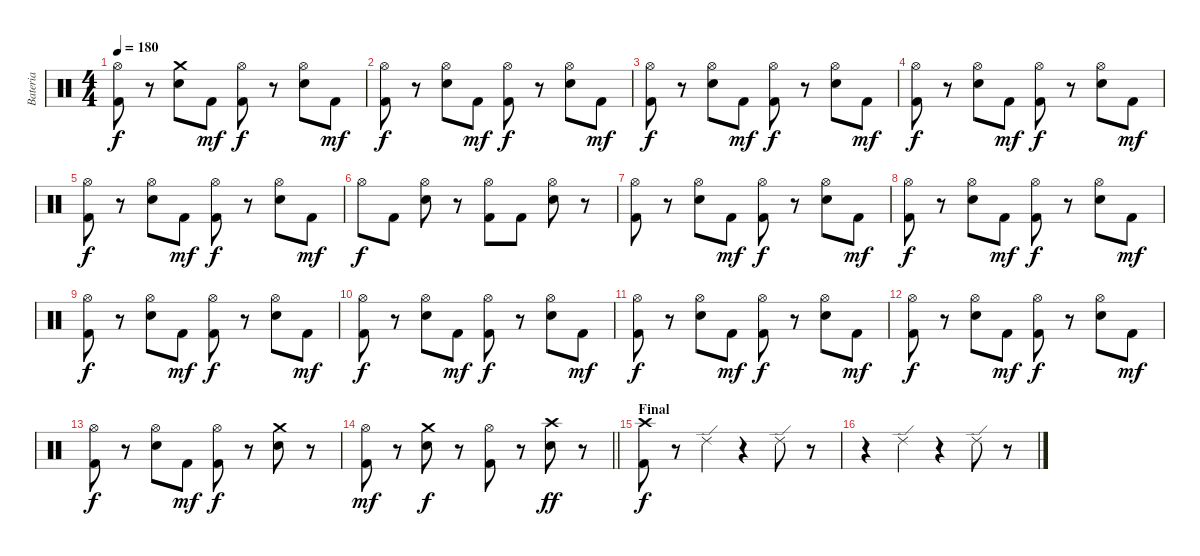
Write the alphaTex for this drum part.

\track ("Bateria" "Bateria") {instrument percussion}
\staff {score}
\articulation defaults
\ts (4 4)
\tempo 180
\clef neutral
\ks c
("Hi-Hat (open)" "Kick (hit) 2").8{dy f} r.8 ("Crash medium (hit)" "Electric Snare (hit)").8 "Kick (hit) 2".8{dy mf} ("Hi-Hat (open)" "Kick (hit) 2").8{dy f} r.8 ("Hi-Hat (open)" "Electric Snare (hit)").8 "Kick (hit) 2".8{dy mf} |
("Hi-Hat (open)" "Kick (hit) 2").8{dy f} r.8 ("Hi-Hat (open)" "Electric Snare (hit)").8 "Kick (hit) 2".8{dy mf} ("Hi-Hat (open)" "Kick (hit) 2").8{dy f} r.8 ("Hi-Hat (open)" "Electric Snare (hit)").8 "Kick (hit) 2".8{dy mf} |
("Hi-Hat (open)" "Kick (hit) 2").8{dy f} r.8 ("Hi-Hat (open)" "Electric Snare (hit)").8 "Kick (hit) 2".8{dy mf} ("Hi-Hat (open)" "Kick (hit) 2").8{dy f} r.8 ("Hi-Hat (open)" "Electric Snare (hit)").8 "Kick (hit) 2".8{dy mf} |
("Hi-Hat (open)" "Kick (hit) 2").8{dy f} r.8 ("Hi-Hat (open)" "Electric Snare (hit)").8 "Kick (hit) 2".8{dy mf} ("Hi-Hat (open)" "Kick (hit) 2").8{dy f} r.8 ("Hi-Hat (open)" "Electric Snare (hit)").8 "Kick (hit) 2".8{dy mf} |
("Hi-Hat (open)" "Kick (hit) 2").8{dy f} r.8 ("Hi-Hat (open)" "Electric Snare (hit)").8 "Kick (hit) 2".8{dy mf} ("Hi-Hat (open)" "Kick (hit) 2").8{dy f} r.8 ("Hi-Hat (open)" "Electric Snare (hit)").8 "Kick (hit) 2".8{dy mf} |
"Hi-Hat (open)".8{dy f} "Kick (hit) 2".8 ("Hi-Hat (open)" "Electric Snare (hit)").8 r.8 ("Hi-Hat (open)" "Kick (hit) 2").8 "Kick (hit) 2".8 ("Hi-Hat (open)" "Electric Snare (hit)").8 r.8 |
("Hi-Hat (open)" "Kick (hit) 2").8 r.8 ("Hi-Hat (open)" "Electric Snare (hit)").8 "Kick (hit) 2".8{dy mf} ("Hi-Hat (open)" "Kick (hit) 2").8{dy f} r.8 ("Hi-Hat (open)" "Electric Snare (hit)").8 "Kick (hit) 2".8{dy mf} |
("Hi-Hat (open)" "Kick (hit) 2").8{dy f} r.8 ("Hi-Hat (open)" "Electric Snare (hit)").8 "Kick (hit) 2".8{dy mf} ("Hi-Hat (open)" "Kick (hit) 2").8{dy f} r.8 ("Hi-Hat (open)" "Electric Snare (hit)").8 "Kick (hit) 2".8{dy mf} |
("Hi-Hat (open)" "Kick (hit) 2").8{dy f} r.8 ("Hi-Hat (open)" "Electric Snare (hit)").8 "Kick (hit) 2".8{dy mf} ("Hi-Hat (open)" "Kick (hit) 2").8{dy f} r.8 ("Hi-Hat (open)" "Electric Snare (hit)").8 "Kick (hit) 2".8{dy mf} |
("Hi-Hat (open)" "Kick (hit) 2").8{dy f} r.8 ("Hi-Hat (open)" "Electric Snare (hit)").8 "Kick (hit) 2".8{dy mf} ("Hi-Hat (open)" "Kick (hit) 2").8{dy f} r.8 ("Hi-Hat (open)" "Electric Snare (hit)").8 "Kick (hit) 2".8{dy mf} |
("Hi-Hat (open)" "Kick (hit) 2").8{dy f} r.8 ("Hi-Hat (open)" "Electric Snare (hit)").8 "Kick (hit) 2".8{dy mf} ("Hi-Hat (open)" "Kick (hit) 2").8{dy f} r.8 ("Hi-Hat (open)" "Electric Snare (hit)").8 "Kick (hit) 2".8{dy mf} |
("Hi-Hat (open)" "Kick (hit) 2").8{dy f} r.8 ("Hi-Hat (open)" "Electric Snare (hit)").8 "Kick (hit) 2".8{dy mf} ("Hi-Hat (open)" "Kick (hit) 2").8{dy f} r.8 ("Hi-Hat (open)" "Electric Snare (hit)").8 "Kick (hit) 2".8{dy mf} |
("Hi-Hat (open)" "Kick (hit) 2").8{dy f} r.8 ("Hi-Hat (open)" "Electric Snare (hit)").8 "Kick (hit) 2".8{dy mf} ("Hi-Hat (open)" "Kick (hit) 2").8{dy f} r.8 ("Crash medium (hit)" "Electric Snare (hit)").8 r.8 |
\barLineRight lightlight
("Hi-Hat (open)" "Kick (hit) 2").8{dy mf} r.8 ("Crash medium (hit)" "Electric Snare (hit)").8{dy f} r.8 ("Hi-Hat (open)" "Kick (hit) 2").8 r.8 ("Crash high (hit)" "Electric Snare (hit)").8{dy ff} r.8 |
\section ("" "Final")
("Crash high (hit)" "Kick (hit) 2").8{dy f} r.8 "Ride (edge) 2".4 r.4 "Ride (edge) 2".8 r.8 |
r.4 "Ride (edge) 2".4 r.4 "Ride (edge) 2".8 r.8
